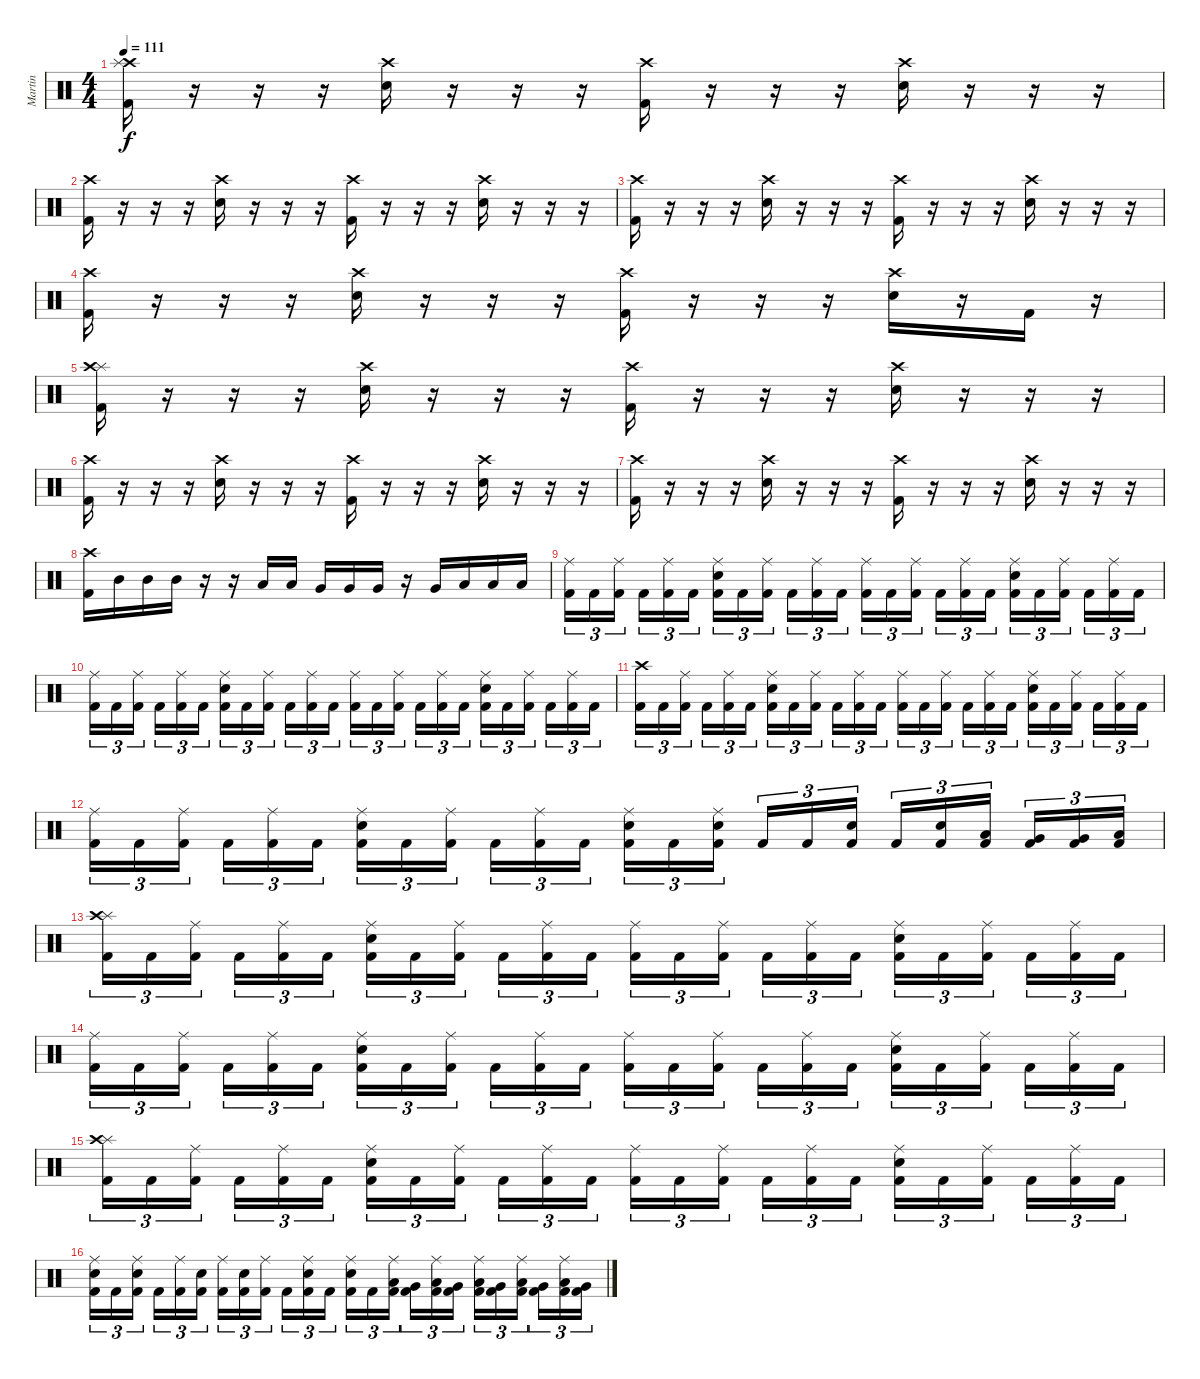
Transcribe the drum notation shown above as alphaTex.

\track ("Martin" "Martin") {instrument percussion}
\staff {score}
\articulation defaults
\ts (4 4)
\tempo 111
\clef neutral
\ks c
("Kick (hit) 2" "Crash high (hit)" "Splash (hit)").16{dy f} r.16 r.16 r.16 ("Electric Snare (hit)" "Crash high (hit)").16 r.16 r.16 r.16 ("Kick (hit) 2" "Crash high (hit)").16 r.16 r.16 r.16 ("Electric Snare (hit)" "Crash high (hit)").16 r.16 r.16 r.16 |
("Kick (hit) 2" "Crash high (hit)").16 r.16 r.16 r.16 ("Electric Snare (hit)" "Crash high (hit)").16 r.16 r.16 r.16 ("Kick (hit) 2" "Crash high (hit)").16 r.16 r.16 r.16 ("Electric Snare (hit)" "Crash high (hit)").16 r.16 r.16 r.16 |
("Kick (hit) 2" "Crash high (hit)").16 r.16 r.16 r.16 ("Electric Snare (hit)" "Crash high (hit)").16 r.16 r.16 r.16 ("Kick (hit) 2" "Crash high (hit)").16 r.16 r.16 r.16 ("Electric Snare (hit)" "Crash high (hit)").16 r.16 r.16 r.16 |
("Kick (hit) 2" "Crash high (hit)").16 r.16 r.16 r.16 ("Electric Snare (hit)" "Crash high (hit)").16 r.16 r.16 r.16 ("Kick (hit) 2" "Crash high (hit)").16 r.16 r.16 r.16 ("Electric Snare (hit)" "Crash high (hit)").16 r.16 "Kick (hit) 2".16 r.16 |
("Kick (hit) 2" "Splash (hit)" "Crash high (hit)").16 r.16 r.16 r.16 ("Electric Snare (hit)" "Crash high (hit)").16 r.16 r.16 r.16 ("Kick (hit) 2" "Crash high (hit)").16 r.16 r.16 r.16 ("Electric Snare (hit)" "Crash high (hit)").16 r.16 r.16 r.16 |
("Kick (hit) 2" "Crash high (hit)").16 r.16 r.16 r.16 ("Electric Snare (hit)" "Crash high (hit)").16 r.16 r.16 r.16 ("Kick (hit) 2" "Crash high (hit)").16 r.16 r.16 r.16 ("Electric Snare (hit)" "Crash high (hit)").16 r.16 r.16 r.16 |
("Kick (hit) 2" "Crash high (hit)").16 r.16 r.16 r.16 ("Electric Snare (hit)" "Crash high (hit)").16 r.16 r.16 r.16 ("Kick (hit) 2" "Crash high (hit)").16 r.16 r.16 r.16 ("Electric Snare (hit)" "Crash high (hit)").16 r.16 r.16 r.16 |
("Kick (hit) 2" "Crash high (hit)").16 "Mid Tom (hit)".16 "Mid Tom (hit)".16 "Mid Tom (hit)".16 r.16 r.16 "Low Tom (hit)".16 "Low Tom (hit)".16 "Very Low Tom (hit)".16 "Very Low Tom (hit)".16 "Very Low Tom (hit)".16 r.16 "Very Low Tom (hit)".16 "Low Floor Tom (hit)".16 "Low Floor Tom (hit)".16 "Low Floor Tom (hit)".16 |
("Kick (hit) 2" "Ride (middle)").16{tu (3 2)} "Kick (hit) 2".16{tu (3 2)} ("Kick (hit) 2" "Ride (middle)").16{tu (3 2)} "Kick (hit) 2".16{tu (3 2)} ("Kick (hit) 2" "Ride (middle)").16{tu (3 2)} "Kick (hit) 2".16{tu (3 2)} ("Kick (hit) 2" "Electric Snare (hit)" "Ride (middle)").16{tu (3 2)} "Kick (hit) 2".16{tu (3 2)} ("Kick (hit) 2" "Ride (middle)").16{tu (3 2)} "Kick (hit) 2".16{tu (3 2)} ("Kick (hit) 2" "Ride (middle)").16{tu (3 2)} "Kick (hit) 2".16{tu (3 2)} ("Kick (hit) 2" "Ride (middle)").16{tu (3 2)} "Kick (hit) 2".16{tu (3 2)} ("Kick (hit) 2" "Ride (middle)").16{tu (3 2)} "Kick (hit) 2".16{tu (3 2)} ("Kick (hit) 2" "Ride (middle)").16{tu (3 2)} "Kick (hit) 2".16{tu (3 2)} ("Kick (hit) 2" "Electric Snare (hit)" "Ride (middle)").16{tu (3 2)} "Kick (hit) 2".16{tu (3 2)} ("Kick (hit) 2" "Ride (middle)").16{tu (3 2)} "Kick (hit) 2".16{tu (3 2)} ("Kick (hit) 2" "Ride (middle)").16{tu (3 2)} "Kick (hit) 2".16{tu (3 2)} |
("Kick (hit) 2" "Ride (middle)").16{tu (3 2)} "Kick (hit) 2".16{tu (3 2)} ("Kick (hit) 2" "Ride (middle)").16{tu (3 2)} "Kick (hit) 2".16{tu (3 2)} ("Kick (hit) 2" "Ride (middle)").16{tu (3 2)} "Kick (hit) 2".16{tu (3 2)} ("Kick (hit) 2" "Electric Snare (hit)" "Ride (middle)").16{tu (3 2)} "Kick (hit) 2".16{tu (3 2)} ("Kick (hit) 2" "Ride (middle)").16{tu (3 2)} "Kick (hit) 2".16{tu (3 2)} ("Kick (hit) 2" "Ride (middle)").16{tu (3 2)} "Kick (hit) 2".16{tu (3 2)} ("Kick (hit) 2" "Ride (middle)").16{tu (3 2)} "Kick (hit) 2".16{tu (3 2)} ("Kick (hit) 2" "Ride (middle)").16{tu (3 2)} "Kick (hit) 2".16{tu (3 2)} ("Kick (hit) 2" "Ride (middle)").16{tu (3 2)} "Kick (hit) 2".16{tu (3 2)} ("Kick (hit) 2" "Electric Snare (hit)" "Ride (middle)").16{tu (3 2)} "Kick (hit) 2".16{tu (3 2)} ("Kick (hit) 2" "Ride (middle)").16{tu (3 2)} "Kick (hit) 2".16{tu (3 2)} ("Kick (hit) 2" "Ride (middle)").16{tu (3 2)} "Kick (hit) 2".16{tu (3 2)} |
("Kick (hit) 2" "Crash high (hit)").16{tu (3 2)} "Kick (hit) 2".16{tu (3 2)} ("Kick (hit) 2" "Ride (middle)").16{tu (3 2)} "Kick (hit) 2".16{tu (3 2)} ("Kick (hit) 2" "Ride (middle)").16{tu (3 2)} "Kick (hit) 2".16{tu (3 2)} ("Kick (hit) 2" "Electric Snare (hit)" "Ride (middle)").16{tu (3 2)} "Kick (hit) 2".16{tu (3 2)} ("Kick (hit) 2" "Ride (middle)").16{tu (3 2)} "Kick (hit) 2".16{tu (3 2)} ("Kick (hit) 2" "Ride (middle)").16{tu (3 2)} "Kick (hit) 2".16{tu (3 2)} ("Kick (hit) 2" "Ride (middle)").16{tu (3 2)} "Kick (hit) 2".16{tu (3 2)} ("Kick (hit) 2" "Ride (middle)").16{tu (3 2)} "Kick (hit) 2".16{tu (3 2)} ("Kick (hit) 2" "Ride (middle)").16{tu (3 2)} "Kick (hit) 2".16{tu (3 2)} ("Kick (hit) 2" "Electric Snare (hit)" "Ride (middle)").16{tu (3 2)} "Kick (hit) 2".16{tu (3 2)} ("Kick (hit) 2" "Ride (middle)").16{tu (3 2)} "Kick (hit) 2".16{tu (3 2)} ("Kick (hit) 2" "Ride (middle)").16{tu (3 2)} "Kick (hit) 2".16{tu (3 2)} |
("Kick (hit) 2" "Ride (middle)").16{tu (3 2)} "Kick (hit) 2".16{tu (3 2)} ("Kick (hit) 2" "Ride (middle)").16{tu (3 2)} "Kick (hit) 2".16{tu (3 2)} ("Kick (hit) 2" "Ride (middle)").16{tu (3 2)} "Kick (hit) 2".16{tu (3 2)} ("Kick (hit) 2" "Electric Snare (hit)" "Ride (middle)").16{tu (3 2)} "Kick (hit) 2".16{tu (3 2)} ("Kick (hit) 2" "Ride (middle)").16{tu (3 2)} "Kick (hit) 2".16{tu (3 2)} ("Kick (hit) 2" "Ride (middle)").16{tu (3 2)} "Kick (hit) 2".16{tu (3 2)} ("Kick (hit) 2" "Electric Snare (hit)" "Ride (middle)").16{tu (3 2)} "Kick (hit) 2".16{tu (3 2)} ("Kick (hit) 2" "Electric Snare (hit)" "Ride (middle)").16{tu (3 2)} "Kick (hit) 2".16{tu (3 2)} "Kick (hit) 2".16{tu (3 2)} ("Kick (hit) 2" "Electric Snare (hit)").16{tu (3 2)} "Kick (hit) 2".16{tu (3 2)} ("Kick (hit) 2" "Electric Snare (hit)").16{tu (3 2)} ("Kick (hit) 2" "Low Tom (hit)").16{tu (3 2)} ("Kick (hit) 2" "Very Low Tom (hit)").16{tu (3 2)} ("Kick (hit) 2" "Very Low Tom (hit)").16{tu (3 2)} ("Kick (hit) 2" "Low Floor Tom (hit)").16{tu (3 2)} |
("Kick (hit) 2" "Splash (hit)" "Crash high (hit)").16{tu (3 2)} "Kick (hit) 2".16{tu (3 2)} ("Kick (hit) 2" "Ride (middle)").16{tu (3 2)} "Kick (hit) 2".16{tu (3 2)} ("Kick (hit) 2" "Ride (middle)").16{tu (3 2)} "Kick (hit) 2".16{tu (3 2)} ("Kick (hit) 2" "Electric Snare (hit)" "Ride (middle)").16{tu (3 2)} "Kick (hit) 2".16{tu (3 2)} ("Kick (hit) 2" "Ride (middle)").16{tu (3 2)} "Kick (hit) 2".16{tu (3 2)} ("Kick (hit) 2" "Ride (middle)").16{tu (3 2)} "Kick (hit) 2".16{tu (3 2)} ("Kick (hit) 2" "Ride (middle)").16{tu (3 2)} "Kick (hit) 2".16{tu (3 2)} ("Kick (hit) 2" "Ride (middle)").16{tu (3 2)} "Kick (hit) 2".16{tu (3 2)} ("Kick (hit) 2" "Ride (middle)").16{tu (3 2)} "Kick (hit) 2".16{tu (3 2)} ("Kick (hit) 2" "Electric Snare (hit)" "Ride (middle)").16{tu (3 2)} "Kick (hit) 2".16{tu (3 2)} ("Kick (hit) 2" "Ride (middle)").16{tu (3 2)} "Kick (hit) 2".16{tu (3 2)} ("Kick (hit) 2" "Ride (middle)").16{tu (3 2)} "Kick (hit) 2".16{tu (3 2)} |
("Kick (hit) 2" "Ride (middle)").16{tu (3 2)} "Kick (hit) 2".16{tu (3 2)} ("Kick (hit) 2" "Ride (middle)").16{tu (3 2)} "Kick (hit) 2".16{tu (3 2)} ("Kick (hit) 2" "Ride (middle)").16{tu (3 2)} "Kick (hit) 2".16{tu (3 2)} ("Kick (hit) 2" "Electric Snare (hit)" "Ride (middle)").16{tu (3 2)} "Kick (hit) 2".16{tu (3 2)} ("Kick (hit) 2" "Ride (middle)").16{tu (3 2)} "Kick (hit) 2".16{tu (3 2)} ("Kick (hit) 2" "Ride (middle)").16{tu (3 2)} "Kick (hit) 2".16{tu (3 2)} ("Kick (hit) 2" "Ride (middle)").16{tu (3 2)} "Kick (hit) 2".16{tu (3 2)} ("Kick (hit) 2" "Ride (middle)").16{tu (3 2)} "Kick (hit) 2".16{tu (3 2)} ("Kick (hit) 2" "Ride (middle)").16{tu (3 2)} "Kick (hit) 2".16{tu (3 2)} ("Kick (hit) 2" "Electric Snare (hit)" "Ride (middle)").16{tu (3 2)} "Kick (hit) 2".16{tu (3 2)} ("Kick (hit) 2" "Ride (middle)").16{tu (3 2)} "Kick (hit) 2".16{tu (3 2)} ("Kick (hit) 2" "Ride (middle)").16{tu (3 2)} "Kick (hit) 2".16{tu (3 2)} |
("Kick (hit) 2" "Splash (hit)" "Crash high (hit)").16{tu (3 2)} "Kick (hit) 2".16{tu (3 2)} ("Kick (hit) 2" "Ride (middle)").16{tu (3 2)} "Kick (hit) 2".16{tu (3 2)} ("Kick (hit) 2" "Ride (middle)").16{tu (3 2)} "Kick (hit) 2".16{tu (3 2)} ("Kick (hit) 2" "Electric Snare (hit)" "Ride (middle)").16{tu (3 2)} "Kick (hit) 2".16{tu (3 2)} ("Kick (hit) 2" "Ride (middle)").16{tu (3 2)} "Kick (hit) 2".16{tu (3 2)} ("Kick (hit) 2" "Ride (middle)").16{tu (3 2)} "Kick (hit) 2".16{tu (3 2)} ("Kick (hit) 2" "Ride (middle)").16{tu (3 2)} "Kick (hit) 2".16{tu (3 2)} ("Kick (hit) 2" "Ride (middle)").16{tu (3 2)} "Kick (hit) 2".16{tu (3 2)} ("Kick (hit) 2" "Ride (middle)").16{tu (3 2)} "Kick (hit) 2".16{tu (3 2)} ("Kick (hit) 2" "Electric Snare (hit)" "Ride (middle)").16{tu (3 2)} "Kick (hit) 2".16{tu (3 2)} ("Kick (hit) 2" "Ride (middle)").16{tu (3 2)} "Kick (hit) 2".16{tu (3 2)} ("Kick (hit) 2" "Ride (middle)").16{tu (3 2)} "Kick (hit) 2".16{tu (3 2)} |
("Kick (hit) 2" "Electric Snare (hit)" "Ride (middle)").16{tu (3 2)} "Kick (hit) 2".16{tu (3 2)} ("Kick (hit) 2" "Electric Snare (hit)" "Ride (middle)").16{tu (3 2)} "Kick (hit) 2".16{tu (3 2)} ("Kick (hit) 2" "Ride (middle)").16{tu (3 2)} ("Kick (hit) 2" "Electric Snare (hit)").16{tu (3 2)} ("Kick (hit) 2" "Ride (middle)").16{tu (3 2)} ("Kick (hit) 2" "Electric Snare (hit)").16{tu (3 2)} ("Kick (hit) 2" "Ride (middle)").16{tu (3 2)} "Kick (hit) 2".16{tu (3 2)} ("Kick (hit) 2" "Electric Snare (hit)" "Ride (middle)").16{tu (3 2)} "Kick (hit) 2".16{tu (3 2)} ("Kick (hit) 2" "Electric Snare (hit)" "Ride (middle)").16{tu (3 2)} "Kick (hit) 2".16{tu (3 2)} ("Kick (hit) 2" "Low Tom (hit)" "Ride (middle)").16{tu (3 2)} ("Kick (hit) 2" "Very Low Tom (hit)").16{tu (3 2)} ("Kick (hit) 2" "Low Tom (hit)" "Ride (middle)").16{tu (3 2)} ("Kick (hit) 2" "Very Low Tom (hit)").16{tu (3 2)} ("Kick (hit) 2" "Low Tom (hit)" "Ride (middle)").16{tu (3 2)} ("Kick (hit) 2" "Very Low Tom (hit)").16{tu (3 2)} ("Kick (hit) 2" "Low Floor Tom (hit)" "Ride (middle)").16{tu (3 2)} ("Kick (hit) 2" "Very Low Tom (hit)").16{tu (3 2)} ("Kick (hit) 2" "Low Floor Tom (hit)" "Ride (middle)").16{tu (3 2)} ("Kick (hit) 2" "Very Low Tom (hit)").16{tu (3 2)}
